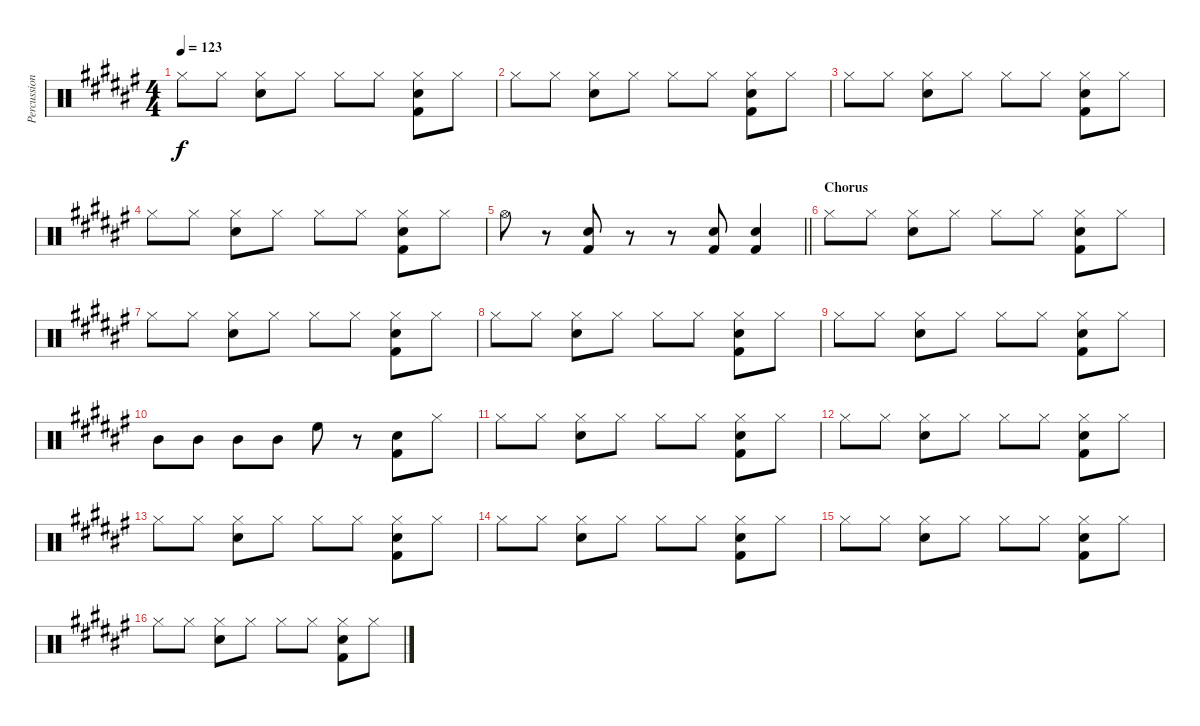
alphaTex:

\track ("Percussion" "Percussion") {instrument percussion}
\staff {score}
\articulation defaults
\ts (4 4)
\tempo 123
\clef neutral
\ks f# "Hi-Hat (closed)".8{dy f} "Hi-Hat (closed)".8
("Hi-Hat (closed)" "Snare (hit) 2").8 "Hi-Hat (closed)".8 "Hi-Hat (closed)".8 "Hi-Hat (closed)".8 ("Hi-Hat (closed)" "Snare (hit) 2" "Kick (hit) 2").8 "Hi-Hat (closed)".8 |
"Hi-Hat (closed)".8 "Hi-Hat (closed)".8 ("Hi-Hat (closed)" "Snare (hit) 2").8 "Hi-Hat (closed)".8 "Hi-Hat (closed)".8 "Hi-Hat (closed)".8 ("Hi-Hat (closed)" "Snare (hit) 2" "Kick (hit) 2").8 "Hi-Hat (closed)".8 |
"Hi-Hat (closed)".8 "Hi-Hat (closed)".8 ("Hi-Hat (closed)" "Snare (hit) 2").8 "Hi-Hat (closed)".8 "Hi-Hat (closed)".8 "Hi-Hat (closed)".8 ("Hi-Hat (closed)" "Snare (hit) 2" "Kick (hit) 2").8 "Hi-Hat (closed)".8 |
"Hi-Hat (closed)".8 "Hi-Hat (closed)".8 ("Hi-Hat (closed)" "Snare (hit) 2").8 "Hi-Hat (closed)".8 "Hi-Hat (closed)".8 "Hi-Hat (closed)".8 ("Hi-Hat (closed)" "Snare (hit) 2" "Kick (hit) 2").8 "Hi-Hat (closed)".8 |
\barLineRight lightlight "Hi-Hat (open)".8
r.8 ("Snare (hit) 2" "Kick (hit) 2").8 r.8 r.8 ("Snare (hit) 2" "Kick (hit) 2").8 ("Snare (hit) 2" "Kick (hit) 2").4 |
\section ("" "Chorus")
"Hi-Hat (closed)".8 "Hi-Hat (closed)".8 ("Hi-Hat (closed)" "Snare (hit) 2").8 "Hi-Hat (closed)".8 "Hi-Hat (closed)".8 "Hi-Hat (closed)".8 ("Hi-Hat (closed)" "Snare (hit) 2" "Kick (hit) 2").8 "Hi-Hat (closed)".8 |
"Hi-Hat (closed)".8 "Hi-Hat (closed)".8 ("Hi-Hat (closed)" "Snare (hit) 2").8 "Hi-Hat (closed)".8 "Hi-Hat (closed)".8 "Hi-Hat (closed)".8 ("Hi-Hat (closed)" "Snare (hit) 2" "Kick (hit) 2").8 "Hi-Hat (closed)".8 |
"Hi-Hat (closed)".8 "Hi-Hat (closed)".8 ("Hi-Hat (closed)" "Snare (hit) 2").8 "Hi-Hat (closed)".8 "Hi-Hat (closed)".8 "Hi-Hat (closed)".8 ("Hi-Hat (closed)" "Snare (hit) 2" "Kick (hit) 2").8 "Hi-Hat (closed)".8 |
"Hi-Hat (closed)".8 "Hi-Hat (closed)".8 ("Hi-Hat (closed)" "Snare (hit) 2").8 "Hi-Hat (closed)".8 "Hi-Hat (closed)".8 "Hi-Hat (closed)".8 ("Hi-Hat (closed)" "Snare (hit) 2" "Kick (hit) 2").8 "Hi-Hat (closed)".8 |
"Mid Tom (hit)".8 "Mid Tom (hit)".8 "Mid Tom (hit)".8 "Mid Tom (hit)".8 "High Floor Tom (hit)".8 r.8 ("Snare (hit) 2" "Kick (hit) 2").8 "Hi-Hat (closed)".8 |
"Hi-Hat (closed)".8 "Hi-Hat (closed)".8 ("Hi-Hat (closed)" "Snare (hit) 2").8 "Hi-Hat (closed)".8 "Hi-Hat (closed)".8 "Hi-Hat (closed)".8 ("Hi-Hat (closed)" "Snare (hit) 2" "Kick (hit) 2").8 "Hi-Hat (closed)".8 |
"Hi-Hat (closed)".8 "Hi-Hat (closed)".8 ("Hi-Hat (closed)" "Snare (hit) 2").8 "Hi-Hat (closed)".8 "Hi-Hat (closed)".8 "Hi-Hat (closed)".8 ("Hi-Hat (closed)" "Snare (hit) 2" "Kick (hit) 2").8 "Hi-Hat (closed)".8 |
"Hi-Hat (closed)".8 "Hi-Hat (closed)".8 ("Hi-Hat (closed)" "Snare (hit) 2").8 "Hi-Hat (closed)".8 "Hi-Hat (closed)".8 "Hi-Hat (closed)".8 ("Hi-Hat (closed)" "Snare (hit) 2" "Kick (hit) 2").8 "Hi-Hat (closed)".8 |
"Hi-Hat (closed)".8 "Hi-Hat (closed)".8 ("Hi-Hat (closed)" "Snare (hit) 2").8 "Hi-Hat (closed)".8 "Hi-Hat (closed)".8 "Hi-Hat (closed)".8 ("Hi-Hat (closed)" "Snare (hit) 2" "Kick (hit) 2").8 "Hi-Hat (closed)".8 |
"Hi-Hat (closed)".8 "Hi-Hat (closed)".8 ("Hi-Hat (closed)" "Snare (hit) 2").8 "Hi-Hat (closed)".8 "Hi-Hat (closed)".8 "Hi-Hat (closed)".8 ("Hi-Hat (closed)" "Snare (hit) 2" "Kick (hit) 2").8 "Hi-Hat (closed)".8 |
"Hi-Hat (closed)".8 "Hi-Hat (closed)".8 ("Hi-Hat (closed)" "Snare (hit) 2").8 "Hi-Hat (closed)".8 "Hi-Hat (closed)".8 "Hi-Hat (closed)".8 ("Hi-Hat (closed)" "Snare (hit) 2" "Kick (hit) 2").8 "Hi-Hat (closed)".8
